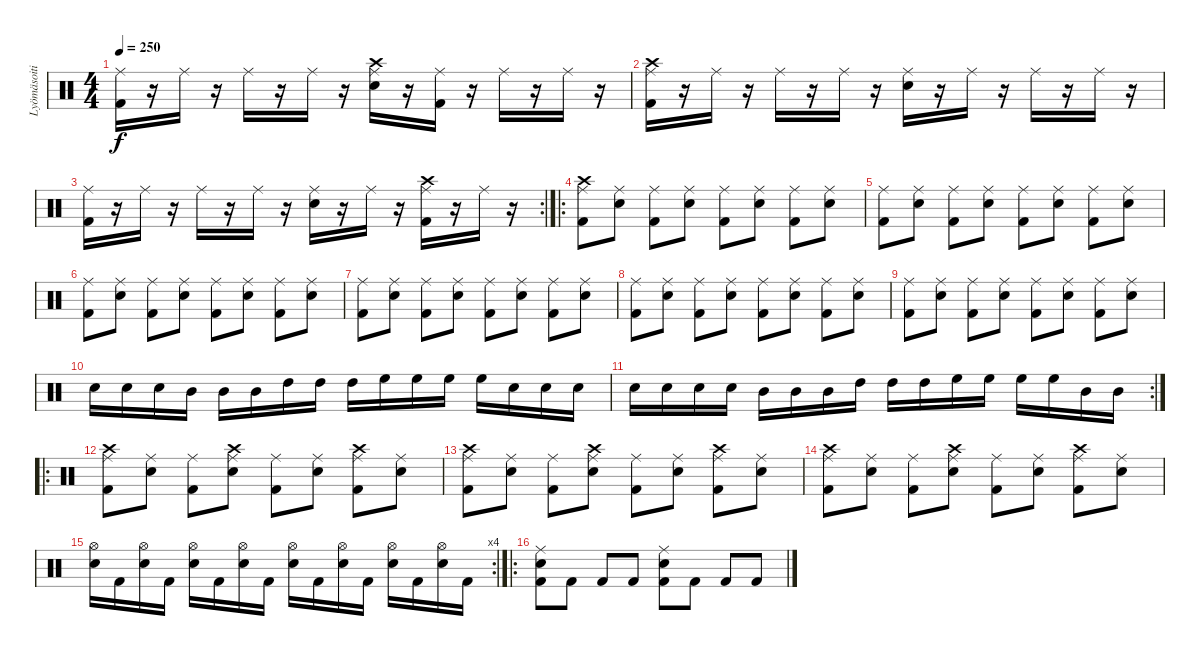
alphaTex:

\track ("Lyömäsoitin" "Lyömäsoiti") {instrument percussion}
\staff {score}
\articulation defaults
\ts (4 4)
\tempo 250
\clef neutral
\ks c
("Ride (middle)" "Kick (hit) 2").16{dy f} r.16 "Ride (middle)".16 r.16 "Ride (middle)".16 r.16 "Ride (middle)".16 r.16 ("Crash high (hit)" "Ride (middle)" "Electric Snare (hit)").16 r.16 ("Ride (middle)" "Kick (hit) 2").16 r.16 "Ride (middle)".16 r.16 "Ride (middle)".16 r.16 |
("Crash high (hit)" "Ride (middle)" "Kick (hit) 2").16 r.16 "Ride (middle)".16 r.16 "Ride (middle)".16 r.16 "Ride (middle)".16 r.16 ("Ride (middle)" "Electric Snare (hit)").16 r.16 "Ride (middle)".16 r.16 "Ride (middle)".16 r.16 "Ride (middle)".16 r.16 |
\rc 2
("Ride (middle)" "Kick (hit) 2").16 r.16 "Ride (middle)".16 r.16 "Ride (middle)".16 r.16 "Ride (middle)".16 r.16 ("Ride (middle)" "Electric Snare (hit)").16 r.16 "Ride (middle)".16 r.16 ("Crash high (hit)" "Ride (middle)" "Kick (hit) 2").16 r.16 "Ride (middle)".16 r.16 |
\ro
("Crash high (hit)" "Ride (middle)" "Kick (hit) 2").8 ("Ride (middle)" "Electric Snare (hit)").8 ("Ride (middle)" "Kick (hit) 2").8 ("Ride (middle)" "Electric Snare (hit)").8 ("Ride (middle)" "Kick (hit) 2").8 ("Ride (middle)" "Electric Snare (hit)").8 ("Ride (middle)" "Kick (hit) 2").8 ("Ride (middle)" "Electric Snare (hit)").8 |
("Ride (middle)" "Kick (hit) 2").8 ("Ride (middle)" "Electric Snare (hit)").8 ("Ride (middle)" "Kick (hit) 2").8 ("Ride (middle)" "Electric Snare (hit)").8 ("Ride (middle)" "Kick (hit) 2").8 ("Ride (middle)" "Electric Snare (hit)").8 ("Ride (middle)" "Kick (hit) 2").8 ("Ride (middle)" "Electric Snare (hit)").8 |
("Ride (middle)" "Kick (hit) 2").8 ("Ride (middle)" "Electric Snare (hit)").8 ("Ride (middle)" "Kick (hit) 2").8 ("Ride (middle)" "Electric Snare (hit)").8 ("Ride (middle)" "Kick (hit) 2").8 ("Ride (middle)" "Electric Snare (hit)").8 ("Ride (middle)" "Kick (hit) 2").8 ("Ride (middle)" "Electric Snare (hit)").8 |
("Ride (middle)" "Kick (hit) 2").8 ("Ride (middle)" "Electric Snare (hit)").8 ("Ride (middle)" "Kick (hit) 2").8 ("Ride (middle)" "Electric Snare (hit)").8 ("Ride (middle)" "Kick (hit) 2").8 ("Ride (middle)" "Electric Snare (hit)").8 ("Ride (middle)" "Kick (hit) 2").8 ("Ride (middle)" "Electric Snare (hit)").8 |
("Ride (middle)" "Kick (hit) 2").8 ("Ride (middle)" "Electric Snare (hit)").8 ("Ride (middle)" "Kick (hit) 2").8 ("Ride (middle)" "Electric Snare (hit)").8 ("Ride (middle)" "Kick (hit) 2").8 ("Ride (middle)" "Electric Snare (hit)").8 ("Ride (middle)" "Kick (hit) 2").8 ("Ride (middle)" "Electric Snare (hit)").8 |
("Ride (middle)" "Kick (hit) 2").8 ("Ride (middle)" "Electric Snare (hit)").8 ("Ride (middle)" "Kick (hit) 2").8 ("Ride (middle)" "Electric Snare (hit)").8 ("Ride (middle)" "Kick (hit) 2").8 ("Ride (middle)" "Electric Snare (hit)").8 ("Ride (middle)" "Kick (hit) 2").8 ("Ride (middle)" "Electric Snare (hit)").8 |
"Electric Snare (hit)".16 "Electric Snare (hit)".16 "Electric Snare (hit)".16 "Mid Tom (hit)".16 "Mid Tom (hit)".16 "Mid Tom (hit)".16 "High Tom (hit)".16 "High Tom (hit)".16 "High Tom (hit)".16 "High Floor Tom (hit)".16 "High Floor Tom (hit)".16 "High Floor Tom (hit)".16 "High Floor Tom (hit)".16 "Electric Snare (hit)".16 "Electric Snare (hit)".16 "Electric Snare (hit)".16 |
\rc 2 "Electric Snare (hit)".16 "Electric Snare (hit)".16 "Electric Snare (hit)".16 "Electric Snare (hit)".16 "Mid Tom (hit)".16 "Mid Tom (hit)".16 "Mid Tom (hit)".16 "High Tom (hit)".16 "High Tom (hit)".16 "High Tom (hit)".16 "High Floor Tom (hit)".16 "High Floor Tom (hit)".16 "High Floor Tom (hit)".16 "High Floor Tom (hit)".16 "Mid Tom (hit)".16 "Mid Tom (hit)".16
|
\ro
("Crash high (hit)" "Ride (middle)" "Kick (hit) 2").8 ("Ride (middle)" "Electric Snare (hit)").8 ("Ride (middle)" "Kick (hit) 2").8 ("Crash high (hit)" "Ride (middle)" "Electric Snare (hit)").8 ("Ride (middle)" "Kick (hit) 2").8 ("Ride (middle)" "Electric Snare (hit)").8 ("Crash high (hit)" "Ride (middle)" "Kick (hit) 2").8 ("Ride (middle)" "Electric Snare (hit)").8 |
("Crash high (hit)" "Ride (middle)" "Kick (hit) 2").8 ("Ride (middle)" "Electric Snare (hit)").8 ("Ride (middle)" "Kick (hit) 2").8 ("Crash high (hit)" "Ride (middle)" "Electric Snare (hit)").8 ("Ride (middle)" "Kick (hit) 2").8 ("Ride (middle)" "Electric Snare (hit)").8 ("Crash high (hit)" "Ride (middle)" "Kick (hit) 2").8 ("Ride (middle)" "Electric Snare (hit)").8 |
("Crash high (hit)" "Ride (middle)" "Kick (hit) 2").8 ("Ride (middle)" "Electric Snare (hit)").8 ("Ride (middle)" "Kick (hit) 2").8 ("Crash high (hit)" "Ride (middle)" "Electric Snare (hit)").8 ("Ride (middle)" "Kick (hit) 2").8 ("Ride (middle)" "Electric Snare (hit)").8 ("Crash high (hit)" "Ride (middle)" "Kick (hit) 2").8 ("Ride (middle)" "Electric Snare (hit)").8 |
\rc 4
("Hi-Hat (open)" "Electric Snare (hit)").16 "Kick (hit) 2".16 ("Hi-Hat (open)" "Electric Snare (hit)").16 "Kick (hit) 2".16 ("Hi-Hat (open)" "Electric Snare (hit)").16 "Kick (hit) 2".16 ("Hi-Hat (open)" "Electric Snare (hit)").16 "Kick (hit) 2".16 ("Hi-Hat (open)" "Electric Snare (hit)").16 "Kick (hit) 2".16 ("Hi-Hat (open)" "Electric Snare (hit)").16 "Kick (hit) 2".16 ("Hi-Hat (open)" "Electric Snare (hit)").16 "Kick (hit) 2".16 ("Hi-Hat (open)" "Electric Snare (hit)").16 "Kick (hit) 2".16 |
\ro
("Ride (middle)" "Electric Snare (hit)" "Kick (hit) 2").8 "Kick (hit) 2".8 "Kick (hit) 2".8 "Kick (hit) 2".8 ("Ride (middle)" "Electric Snare (hit)" "Kick (hit) 2").8 "Kick (hit) 2".8 "Kick (hit) 2".8 "Kick (hit) 2".8
